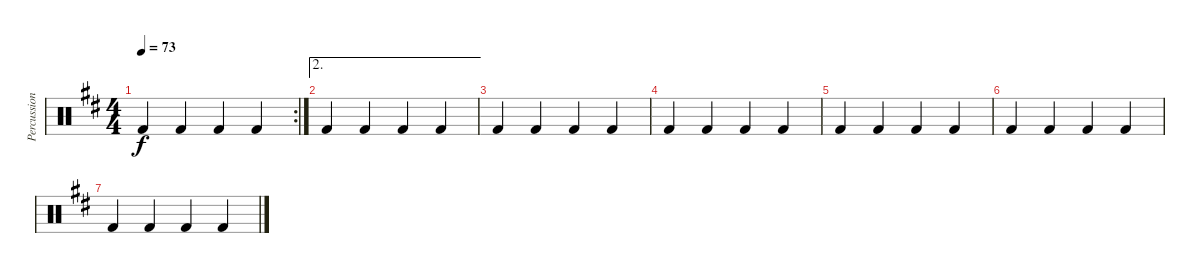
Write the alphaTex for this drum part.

\track ("Percussion" "Percussion") {instrument percussion}
\staff {score}
\articulation defaults
\rc 2
\ts (4 4)
\tempo 73
\clef neutral
\ks d "Kick (hit) 2".4{dy f} "Kick (hit) 2".4 "Kick (hit) 2".4 "Kick (hit) 2".4
|
\ae 2 "Kick (hit) 2".4 "Kick (hit) 2".4 "Kick (hit) 2".4 "Kick (hit) 2".4
|
"Kick (hit) 2".4 "Kick (hit) 2".4 "Kick (hit) 2".4 "Kick (hit) 2".4 |
"Kick (hit) 2".4 "Kick (hit) 2".4 "Kick (hit) 2".4 "Kick (hit) 2".4 |
"Kick (hit) 2".4 "Kick (hit) 2".4 "Kick (hit) 2".4 "Kick (hit) 2".4 |
"Kick (hit) 2".4 "Kick (hit) 2".4 "Kick (hit) 2".4 "Kick (hit) 2".4 |
"Kick (hit) 2".4 "Kick (hit) 2".4 "Kick (hit) 2".4 "Kick (hit) 2".4
